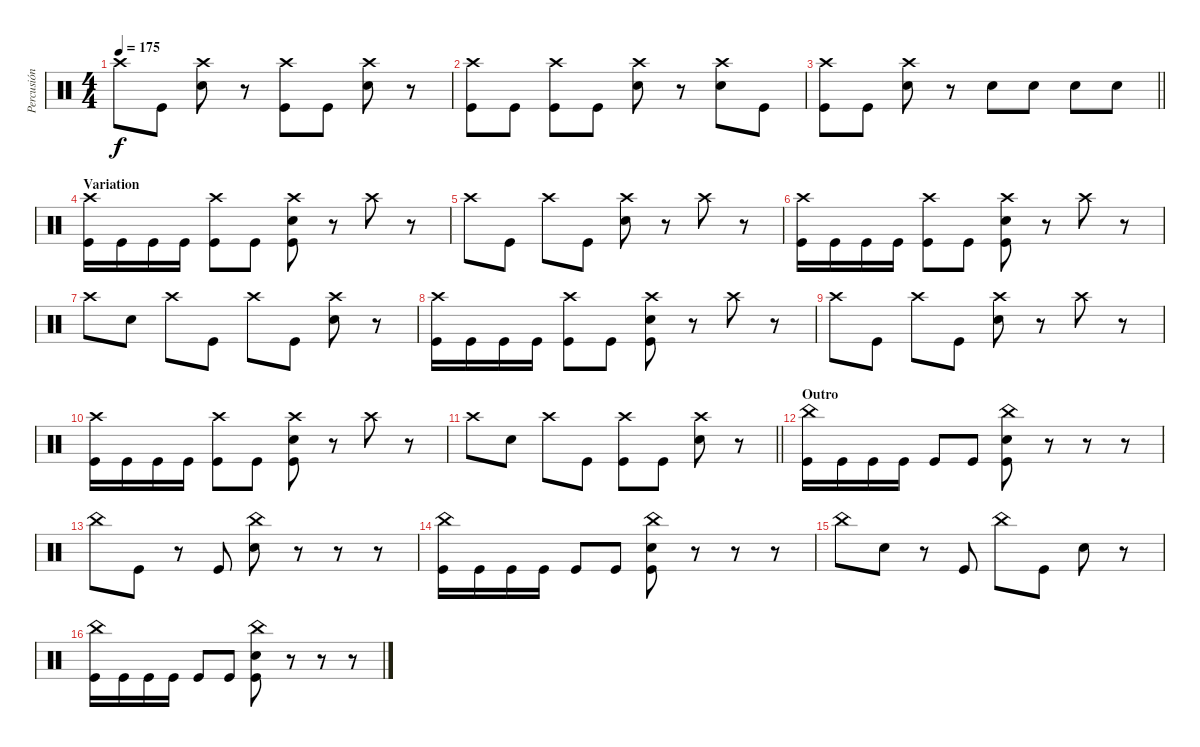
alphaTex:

\track ("Percusión" "Percusión") {instrument percussion}
\staff {score}
\articulation defaults
\ts (4 4)
\tempo 175
\clef neutral
\ks c "Crash high (hit)".8{dy f} "Kick (hit)".8
("Crash high (hit)" "Snare (hit) 2").8 r.8 ("Crash high (hit)" "Kick (hit)").8 "Kick (hit)".8 ("Crash high (hit)" "Snare (hit) 2").8 r.8 |
("Crash high (hit)" "Kick (hit)").8 "Kick (hit)".8 ("Crash high (hit)" "Kick (hit)").8 "Kick (hit)".8 ("Crash high (hit)" "Snare (hit) 2").8 r.8 ("Crash high (hit)" "Snare (hit) 2").8 "Kick (hit)".8 |
\barLineRight lightlight
("Crash high (hit)" "Kick (hit)").8 "Kick (hit)".8 ("Crash high (hit)" "Snare (hit) 2").8 r.8 "Snare (hit) 2".8 "Snare (hit) 2".8 "Snare (hit) 2".8 "Snare (hit) 2".8 |
\section ("" "Variation")
("Crash high (hit)" "Kick (hit)").16 "Kick (hit)".16 "Kick (hit)".16 "Kick (hit)".16 ("Crash high (hit)" "Kick (hit)").8 "Kick (hit)".8 ("Crash high (hit)" "Kick (hit)" "Snare (hit) 2").8 r.8 "Crash high (hit)".8 r.8 |
"Crash high (hit)".8 "Kick (hit)".8 "Crash high (hit)".8 "Kick (hit)".8 ("Crash high (hit)" "Snare (hit) 2").8 r.8 "Crash high (hit)".8 r.8 |
("Crash high (hit)" "Kick (hit)").16 "Kick (hit)".16 "Kick (hit)".16 "Kick (hit)".16 ("Crash high (hit)" "Kick (hit)").8 "Kick (hit)".8 ("Crash high (hit)" "Kick (hit)" "Snare (hit) 2").8 r.8 "Crash high (hit)".8 r.8 |
"Crash high (hit)".8 "Snare (hit) 2".8 "Crash high (hit)".8 "Kick (hit)".8 "Crash high (hit)".8 "Kick (hit)".8 ("Crash high (hit)" "Snare (hit) 2").8 r.8 |
("Crash high (hit)" "Kick (hit)").16 "Kick (hit)".16 "Kick (hit)".16 "Kick (hit)".16 ("Crash high (hit)" "Kick (hit)").8 "Kick (hit)".8 ("Crash high (hit)" "Kick (hit)" "Snare (hit) 2").8 r.8 "Crash high (hit)".8 r.8 |
"Crash high (hit)".8 "Kick (hit)".8 "Crash high (hit)".8 "Kick (hit)".8 ("Crash high (hit)" "Snare (hit) 2").8 r.8 "Crash high (hit)".8 r.8 |
("Crash high (hit)" "Kick (hit)").16 "Kick (hit)".16 "Kick (hit)".16 "Kick (hit)".16 ("Crash high (hit)" "Kick (hit)").8 "Kick (hit)".8 ("Crash high (hit)" "Kick (hit)" "Snare (hit) 2").8 r.8 "Crash high (hit)".8 r.8 |
\barLineRight lightlight "Crash high (hit)".8 "Snare (hit) 2".8 "Crash high (hit)".8 "Kick (hit)".8
("Crash high (hit)" "Kick (hit)").8 "Kick (hit)".8 ("Crash high (hit)" "Snare (hit) 2").8 r.8 |
\section ("" "Outro")
("China (hit)" "Kick (hit)").16 "Kick (hit)".16 "Kick (hit)".16 "Kick (hit)".16 "Kick (hit)".8 "Kick (hit)".8 ("China (hit)" "Kick (hit)" "Snare (hit) 2").8 r.8 r.8 r.8 |
"China (hit)".8 "Kick (hit)".8 r.8 "Kick (hit)".8 ("China (hit)" "Snare (hit) 2").8 r.8 r.8 r.8 |
("China (hit)" "Kick (hit)").16 "Kick (hit)".16 "Kick (hit)".16 "Kick (hit)".16 "Kick (hit)".8 "Kick (hit)".8 ("China (hit)" "Kick (hit)" "Snare (hit) 2").8 r.8 r.8 r.8 |
"China (hit)".8 "Snare (hit) 2".8 r.8 "Kick (hit)".8 "China (hit)".8 "Kick (hit)".8 "Snare (hit) 2".8 r.8 |
("China (hit)" "Kick (hit)").16 "Kick (hit)".16 "Kick (hit)".16 "Kick (hit)".16 "Kick (hit)".8 "Kick (hit)".8 ("China (hit)" "Kick (hit)" "Snare (hit) 2").8 r.8 r.8 r.8
